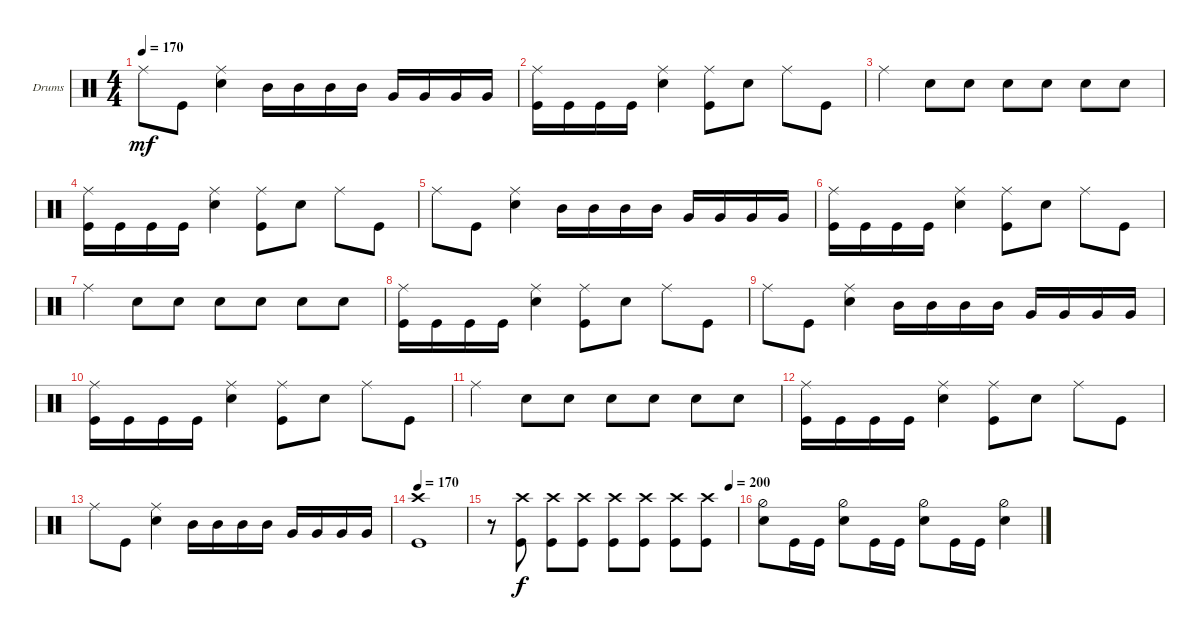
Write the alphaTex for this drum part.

\bracketExtendMode groupsimilarinstruments
\firstSystemTrackNameOrientation horizontal
\otherSystemsTrackNameOrientation horizontal
\track ("Emile Bardou" "Drums") {instrument percussion}
\staff {score}
\articulation defaults
\ts (4 4)
\tempo 170
\clef neutral
\ks c "Ride (middle)".8{dy mf} "Kick (hit)".8
("Ride (middle)" "Snare (hit) 2").4 "Mid Tom (hit)".16 "Mid Tom (hit)".16 "Mid Tom (hit)".16 "Mid Tom (hit)".16 "Very Low Tom (hit)".16 "Very Low Tom (hit)".16 "Very Low Tom (hit)".16 "Very Low Tom (hit)".16 |
("Kick (hit)" "Ride (middle)").16 "Kick (hit)".16 "Kick (hit)".16 "Kick (hit)".16 ("Ride (middle)" "Snare (hit) 2").4 ("Kick (hit)" "Ride (middle)").8 "Snare (hit) 2".8 "Ride (middle)".8 "Kick (hit)".8 |
"Ride (middle)".4 "Snare (hit) 2".8 "Snare (hit) 2".8 "Snare (hit) 2".8 "Snare (hit) 2".8 "Snare (hit) 2".8 "Snare (hit) 2".8 |
("Kick (hit)" "Ride (middle)").16 "Kick (hit)".16 "Kick (hit)".16 "Kick (hit)".16 ("Ride (middle)" "Snare (hit) 2").4 ("Kick (hit)" "Ride (middle)").8 "Snare (hit) 2".8 "Ride (middle)".8 "Kick (hit)".8 |
"Ride (middle)".8 "Kick (hit)".8 ("Ride (middle)" "Snare (hit) 2").4 "Mid Tom (hit)".16 "Mid Tom (hit)".16 "Mid Tom (hit)".16 "Mid Tom (hit)".16 "Very Low Tom (hit)".16 "Very Low Tom (hit)".16 "Very Low Tom (hit)".16 "Very Low Tom (hit)".16 |
("Kick (hit)" "Ride (middle)").16 "Kick (hit)".16 "Kick (hit)".16 "Kick (hit)".16 ("Ride (middle)" "Snare (hit) 2").4 ("Kick (hit)" "Ride (middle)").8 "Snare (hit) 2".8 "Ride (middle)".8 "Kick (hit)".8 |
"Ride (middle)".4 "Snare (hit) 2".8 "Snare (hit) 2".8 "Snare (hit) 2".8 "Snare (hit) 2".8 "Snare (hit) 2".8 "Snare (hit) 2".8 |
("Kick (hit)" "Ride (middle)").16 "Kick (hit)".16 "Kick (hit)".16 "Kick (hit)".16 ("Ride (middle)" "Snare (hit) 2").4 ("Kick (hit)" "Ride (middle)").8 "Snare (hit) 2".8 "Ride (middle)".8 "Kick (hit)".8 |
"Ride (middle)".8 "Kick (hit)".8 ("Ride (middle)" "Snare (hit) 2").4 "Mid Tom (hit)".16 "Mid Tom (hit)".16 "Mid Tom (hit)".16 "Mid Tom (hit)".16 "Very Low Tom (hit)".16 "Very Low Tom (hit)".16 "Very Low Tom (hit)".16 "Very Low Tom (hit)".16 |
("Kick (hit)" "Ride (middle)").16 "Kick (hit)".16 "Kick (hit)".16 "Kick (hit)".16 ("Ride (middle)" "Snare (hit) 2").4 ("Kick (hit)" "Ride (middle)").8 "Snare (hit) 2".8 "Ride (middle)".8 "Kick (hit)".8 |
"Ride (middle)".4 "Snare (hit) 2".8 "Snare (hit) 2".8 "Snare (hit) 2".8 "Snare (hit) 2".8 "Snare (hit) 2".8 "Snare (hit) 2".8 |
("Kick (hit)" "Ride (middle)").16 "Kick (hit)".16 "Kick (hit)".16 "Kick (hit)".16 ("Ride (middle)" "Snare (hit) 2").4 ("Kick (hit)" "Ride (middle)").8 "Snare (hit) 2".8 "Ride (middle)".8 "Kick (hit)".8 |
"Ride (middle)".8 "Kick (hit)".8 ("Ride (middle)" "Snare (hit) 2").4 "Mid Tom (hit)".16 "Mid Tom (hit)".16 "Mid Tom (hit)".16 "Mid Tom (hit)".16 "Very Low Tom (hit)".16 "Very Low Tom (hit)".16 "Very Low Tom (hit)".16 "Very Low Tom (hit)".16 |
\tempo 170
("Crash high (hit)" "Kick (hit)").1 |
\tempo (200 0.96875)
r.8 ("Kick (hit)" "Crash high (hit)").8{dy f} ("Kick (hit)" "Crash high (hit)").8 ("Kick (hit)" "Crash high (hit)").8 ("Kick (hit)" "Crash high (hit)").8 ("Kick (hit)" "Crash high (hit)").8 ("Kick (hit)" "Crash high (hit)").8 ("Kick (hit)" "Crash high (hit)").8 |
("Hi-Hat (half)" "Snare (hit) 2").8 "Kick (hit)".16 "Kick (hit)".16 ("Hi-Hat (half)" "Snare (hit) 2").8 "Kick (hit)".16 "Kick (hit)".16 ("Hi-Hat (half)" "Snare (hit) 2").8 "Kick (hit)".16 "Kick (hit)".16 ("Hi-Hat (half)" "Snare (hit) 2").4
